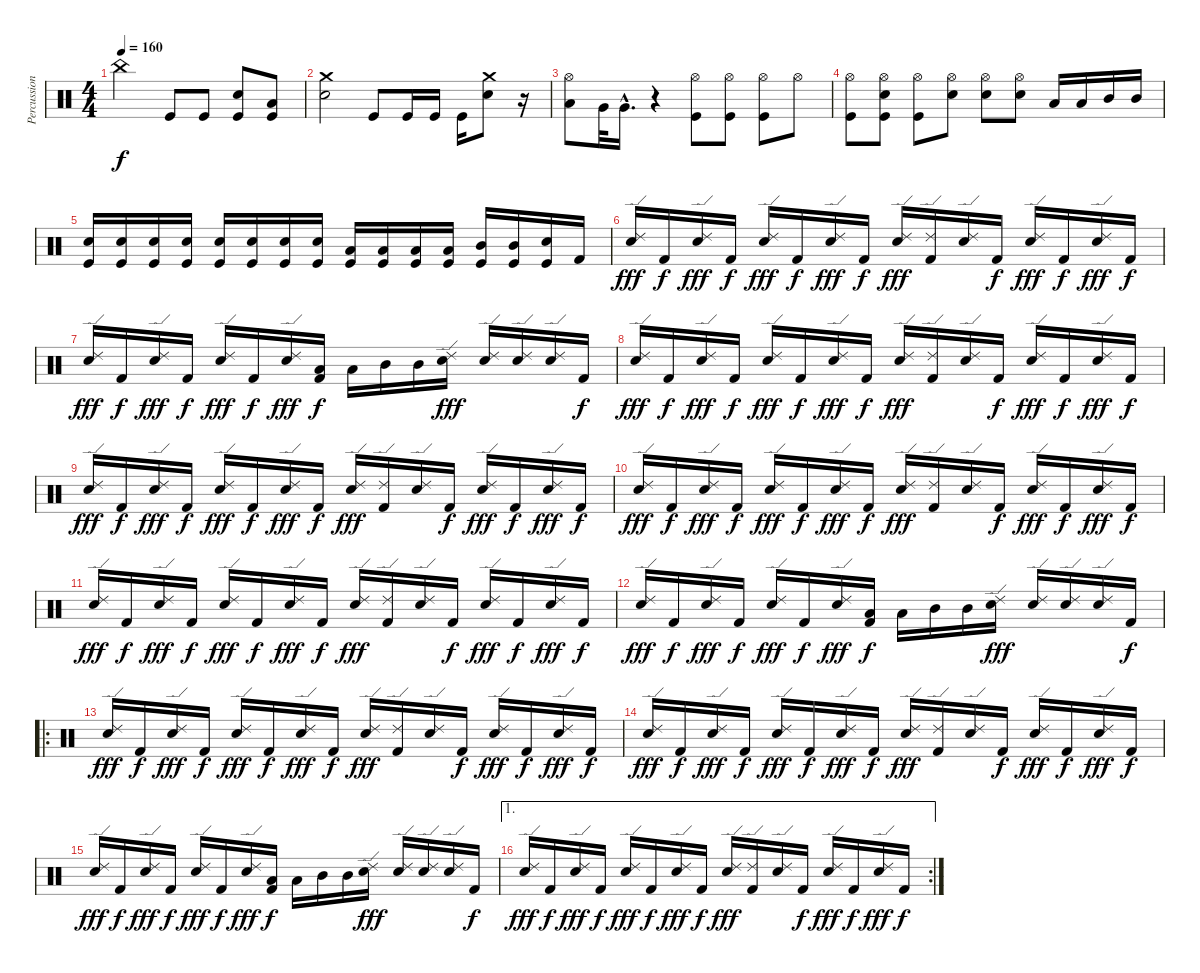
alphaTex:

\track ("Percussion" "Percussion") {instrument percussion}
\staff {score}
\articulation defaults
\ts (4 4)
\tempo 160
\clef neutral
\ks c "China (hit)".2{dy f} "Kick (hit)".8 "Kick (hit)".8
("Electric Snare (hit)" "Kick (hit)").8 ("Low Floor Tom (hit)" "Kick (hit)").8 |
("Crash medium (hit)" "Electric Snare (hit)").2 "Kick (hit)".8 "Kick (hit)".16 "Kick (hit)".16 "Kick (hit)".16 ("Crash medium (hit)" "Electric Snare (hit)").8 r.16 |
("Hi-Hat (open)" "Low Floor Tom (hit)").8 "Very Low Tom (hit)".32 "Very Low Tom (hit)"{hac}.16{d} r.4 ("Hi-Hat (open)" "Kick (hit)").8 ("Hi-Hat (open)" "Kick (hit)").8 ("Hi-Hat (open)" "Kick (hit)").8 "Hi-Hat (open)".8 |
("Hi-Hat (open)" "Kick (hit)").8 ("Hi-Hat (open)" "Electric Snare (hit)" "Kick (hit)").8 ("Hi-Hat (open)" "Kick (hit)").8 ("Hi-Hat (open)" "Electric Snare (hit)").8 ("Hi-Hat (open)" "Electric Snare (hit)").8 ("Hi-Hat (open)" "Electric Snare (hit)").8 "Low Tom (hit)".16 "Low Tom (hit)".16 "Mid Tom (hit)".16 "Mid Tom (hit)".16 |
("Electric Snare (hit)" "Kick (hit)").16 ("Electric Snare (hit)" "Kick (hit)").16 ("Electric Snare (hit)" "Kick (hit)").16 ("Electric Snare (hit)" "Kick (hit)").16 ("Electric Snare (hit)" "Kick (hit)").16 ("Electric Snare (hit)" "Kick (hit)").16 ("Electric Snare (hit)" "Kick (hit)").16 ("Electric Snare (hit)" "Kick (hit)").16 ("Low Tom (hit)" "Kick (hit)").16 ("Low Tom (hit)" "Kick (hit)").16 ("Low Tom (hit)" "Kick (hit)").16 ("Low Tom (hit)" "Kick (hit)").16 ("Mid Tom (hit)" "Kick (hit)").16 ("Mid Tom (hit)" "Kick (hit)").16 ("Electric Snare (hit)" "Kick (hit)").16 "Kick (hit) 2".16 |
("Ride (edge) 2" "Electric Snare (hit)").16{dy fff} "Kick (hit) 2".16{dy f} ("Ride (edge) 2" "Electric Snare (hit)").16{dy fff} "Kick (hit) 2".16{dy f} ("Ride (edge) 2" "Electric Snare (hit)").16{dy fff} "Kick (hit) 2".16{dy f} ("Ride (edge) 2" "Electric Snare (hit)").16{dy fff} "Kick (hit) 2".16{dy f} ("Ride (edge) 2" "Electric Snare (hit)").16{dy fff} ("Ride (edge) 2" "Kick (hit) 2").16 ("Ride (edge) 2" "Electric Snare (hit)").16 "Kick (hit) 2".16{dy f} ("Ride (edge) 2" "Electric Snare (hit)").16{dy fff} "Kick (hit) 2".16{dy f} ("Ride (edge) 2" "Electric Snare (hit)").16{dy fff} "Kick (hit) 2".16{dy f} |
("Ride (edge) 2" "Electric Snare (hit)").16{dy fff} "Kick (hit) 2".16{dy f} ("Ride (edge) 2" "Electric Snare (hit)").16{dy fff} "Kick (hit) 2".16{dy f} ("Ride (edge) 2" "Electric Snare (hit)").16{dy fff} "Kick (hit) 2".16{dy f} ("Ride (edge) 2" "Electric Snare (hit)").16{dy fff} ("Low Tom (hit)" "Kick (hit) 2").16{dy f} "Low Tom (hit)".16 "Mid Tom (hit)".16 "Mid Tom (hit)".16 ("Ride (edge) 2" "Electric Snare (hit)").16{dy fff} ("Ride (edge) 2" "Electric Snare (hit)").16 ("Ride (edge) 2" "Electric Snare (hit)").16 ("Ride (edge) 2" "Electric Snare (hit)").16 "Kick (hit) 2".16{dy f} |
("Ride (edge) 2" "Electric Snare (hit)").16{dy fff} "Kick (hit) 2".16{dy f} ("Ride (edge) 2" "Electric Snare (hit)").16{dy fff} "Kick (hit) 2".16{dy f} ("Ride (edge) 2" "Electric Snare (hit)").16{dy fff} "Kick (hit) 2".16{dy f} ("Ride (edge) 2" "Electric Snare (hit)").16{dy fff} "Kick (hit) 2".16{dy f} ("Ride (edge) 2" "Electric Snare (hit)").16{dy fff} ("Ride (edge) 2" "Kick (hit) 2").16 ("Ride (edge) 2" "Electric Snare (hit)").16 "Kick (hit) 2".16{dy f} ("Ride (edge) 2" "Electric Snare (hit)").16{dy fff} "Kick (hit) 2".16{dy f} ("Ride (edge) 2" "Electric Snare (hit)").16{dy fff} "Kick (hit) 2".16{dy f} |
("Ride (edge) 2" "Electric Snare (hit)").16{dy fff} "Kick (hit) 2".16{dy f} ("Ride (edge) 2" "Electric Snare (hit)").16{dy fff} "Kick (hit) 2".16{dy f} ("Ride (edge) 2" "Electric Snare (hit)").16{dy fff} "Kick (hit) 2".16{dy f} ("Ride (edge) 2" "Electric Snare (hit)").16{dy fff} "Kick (hit) 2".16{dy f} ("Ride (edge) 2" "Electric Snare (hit)").16{dy fff} ("Ride (edge) 2" "Kick (hit) 2").16 ("Ride (edge) 2" "Electric Snare (hit)").16 "Kick (hit) 2".16{dy f} ("Ride (edge) 2" "Electric Snare (hit)").16{dy fff} "Kick (hit) 2".16{dy f} ("Ride (edge) 2" "Electric Snare (hit)").16{dy fff} "Kick (hit) 2".16{dy f} |
("Ride (edge) 2" "Electric Snare (hit)").16{dy fff} "Kick (hit) 2".16{dy f} ("Ride (edge) 2" "Electric Snare (hit)").16{dy fff} "Kick (hit) 2".16{dy f} ("Ride (edge) 2" "Electric Snare (hit)").16{dy fff} "Kick (hit) 2".16{dy f} ("Ride (edge) 2" "Electric Snare (hit)").16{dy fff} "Kick (hit) 2".16{dy f} ("Ride (edge) 2" "Electric Snare (hit)").16{dy fff} ("Ride (edge) 2" "Kick (hit) 2").16 ("Ride (edge) 2" "Electric Snare (hit)").16 "Kick (hit) 2".16{dy f} ("Ride (edge) 2" "Electric Snare (hit)").16{dy fff} "Kick (hit) 2".16{dy f} ("Ride (edge) 2" "Electric Snare (hit)").16{dy fff} "Kick (hit) 2".16{dy f} |
("Ride (edge) 2" "Electric Snare (hit)").16{dy fff} "Kick (hit) 2".16{dy f} ("Ride (edge) 2" "Electric Snare (hit)").16{dy fff} "Kick (hit) 2".16{dy f} ("Ride (edge) 2" "Electric Snare (hit)").16{dy fff} "Kick (hit) 2".16{dy f} ("Ride (edge) 2" "Electric Snare (hit)").16{dy fff} "Kick (hit) 2".16{dy f} ("Ride (edge) 2" "Electric Snare (hit)").16{dy fff} ("Ride (edge) 2" "Kick (hit) 2").16 ("Ride (edge) 2" "Electric Snare (hit)").16 "Kick (hit) 2".16{dy f} ("Ride (edge) 2" "Electric Snare (hit)").16{dy fff} "Kick (hit) 2".16{dy f} ("Ride (edge) 2" "Electric Snare (hit)").16{dy fff} "Kick (hit) 2".16{dy f} |
("Ride (edge) 2" "Electric Snare (hit)").16{dy fff} "Kick (hit) 2".16{dy f} ("Ride (edge) 2" "Electric Snare (hit)").16{dy fff} "Kick (hit) 2".16{dy f} ("Ride (edge) 2" "Electric Snare (hit)").16{dy fff} "Kick (hit) 2".16{dy f} ("Ride (edge) 2" "Electric Snare (hit)").16{dy fff} ("Low Tom (hit)" "Kick (hit) 2").16{dy f} "Low Tom (hit)".16 "Mid Tom (hit)".16 "Mid Tom (hit)".16 ("Ride (edge) 2" "Electric Snare (hit)").16{dy fff} ("Ride (edge) 2" "Electric Snare (hit)").16 ("Ride (edge) 2" "Electric Snare (hit)").16 ("Ride (edge) 2" "Electric Snare (hit)").16 "Kick (hit) 2".16{dy f} |
\ro
("Ride (edge) 2" "Electric Snare (hit)").16{dy fff} "Kick (hit) 2".16{dy f} ("Ride (edge) 2" "Electric Snare (hit)").16{dy fff} "Kick (hit) 2".16{dy f} ("Ride (edge) 2" "Electric Snare (hit)").16{dy fff} "Kick (hit) 2".16{dy f} ("Ride (edge) 2" "Electric Snare (hit)").16{dy fff} "Kick (hit) 2".16{dy f} ("Ride (edge) 2" "Electric Snare (hit)").16{dy fff} ("Ride (edge) 2" "Kick (hit) 2").16 ("Ride (edge) 2" "Electric Snare (hit)").16 "Kick (hit) 2".16{dy f} ("Ride (edge) 2" "Electric Snare (hit)").16{dy fff} "Kick (hit) 2".16{dy f} ("Ride (edge) 2" "Electric Snare (hit)").16{dy fff} "Kick (hit) 2".16{dy f} |
("Ride (edge) 2" "Electric Snare (hit)").16{dy fff} "Kick (hit) 2".16{dy f} ("Ride (edge) 2" "Electric Snare (hit)").16{dy fff} "Kick (hit) 2".16{dy f} ("Ride (edge) 2" "Electric Snare (hit)").16{dy fff} "Kick (hit) 2".16{dy f} ("Ride (edge) 2" "Electric Snare (hit)").16{dy fff} "Kick (hit) 2".16{dy f} ("Ride (edge) 2" "Electric Snare (hit)").16{dy fff} ("Ride (edge) 2" "Kick (hit) 2").16 ("Ride (edge) 2" "Electric Snare (hit)").16 "Kick (hit) 2".16{dy f} ("Ride (edge) 2" "Electric Snare (hit)").16{dy fff} "Kick (hit) 2".16{dy f} ("Ride (edge) 2" "Electric Snare (hit)").16{dy fff} "Kick (hit) 2".16{dy f} |
("Ride (edge) 2" "Electric Snare (hit)").16{dy fff} "Kick (hit) 2".16{dy f} ("Ride (edge) 2" "Electric Snare (hit)").16{dy fff} "Kick (hit) 2".16{dy f} ("Ride (edge) 2" "Electric Snare (hit)").16{dy fff} "Kick (hit) 2".16{dy f} ("Ride (edge) 2" "Electric Snare (hit)").16{dy fff} ("Low Tom (hit)" "Kick (hit) 2").16{dy f} "Low Tom (hit)".16 "Mid Tom (hit)".16 "Mid Tom (hit)".16 ("Ride (edge) 2" "Electric Snare (hit)").16{dy fff} ("Ride (edge) 2" "Electric Snare (hit)").16 ("Ride (edge) 2" "Electric Snare (hit)").16 ("Ride (edge) 2" "Electric Snare (hit)").16 "Kick (hit) 2".16{dy f} |
\ae 1
\rc 2
("Ride (edge) 2" "Electric Snare (hit)").16{dy fff} "Kick (hit) 2".16{dy f} ("Ride (edge) 2" "Electric Snare (hit)").16{dy fff} "Kick (hit) 2".16{dy f} ("Ride (edge) 2" "Electric Snare (hit)").16{dy fff} "Kick (hit) 2".16{dy f} ("Ride (edge) 2" "Electric Snare (hit)").16{dy fff} "Kick (hit) 2".16{dy f} ("Ride (edge) 2" "Electric Snare (hit)").16{dy fff} ("Ride (edge) 2" "Kick (hit) 2").16 ("Ride (edge) 2" "Electric Snare (hit)").16 "Kick (hit) 2".16{dy f} ("Ride (edge) 2" "Electric Snare (hit)").16{dy fff} "Kick (hit) 2".16{dy f} ("Ride (edge) 2" "Electric Snare (hit)").16{dy fff} "Kick (hit) 2".16{dy f}
